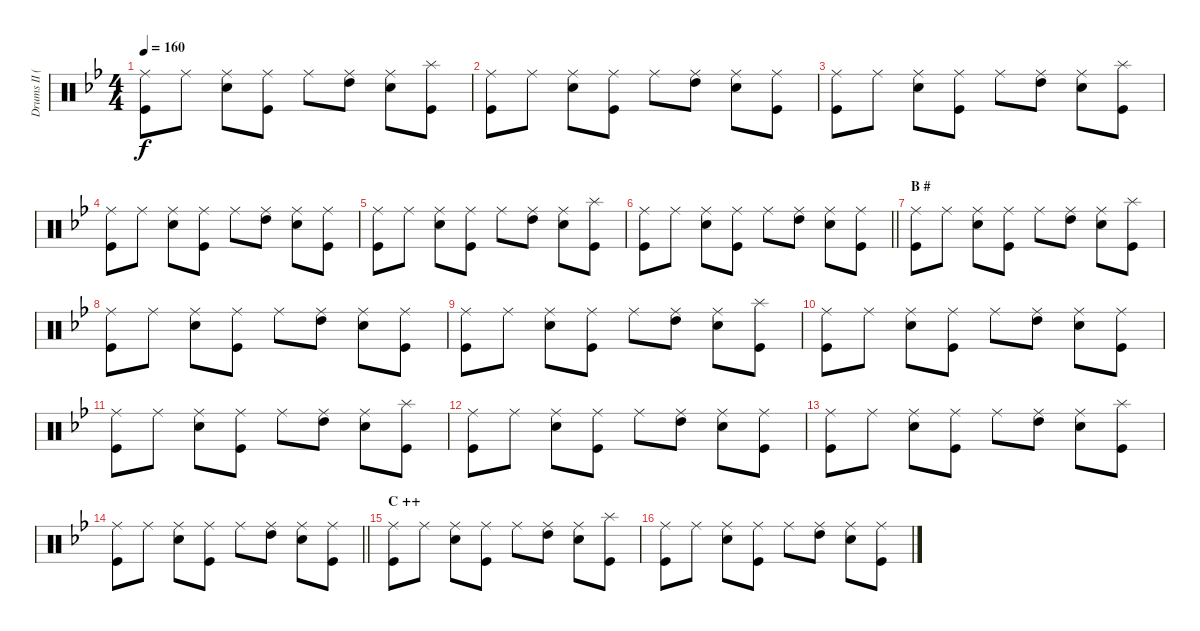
\track ("Drums II (Tainaka Ritsu)" "Drums II (") {instrument percussion}
\staff {score}
\articulation defaults
\ts (4 4)
\tempo 160
\clef neutral
\ks bb
("Ride (middle)" "Kick (hit)").8{dy f} "Ride (middle)".8 ("Ride (middle)" "Snare (hit) 2").8 ("Ride (middle)" "Kick (hit)").8 "Ride (middle)".8 ("Ride (middle)" "High Tom (hit)").8 ("Ride (middle)" "Snare (hit) 2").8 ("Splash (hit)" "Kick (hit)").8 |
("Ride (middle)" "Kick (hit)").8 "Ride (middle)".8 ("Ride (middle)" "Snare (hit) 2").8 ("Ride (middle)" "Kick (hit)").8 "Ride (middle)".8 ("Ride (middle)" "High Tom (hit)").8 ("Ride (middle)" "Snare (hit) 2").8 ("Ride (middle)" "Kick (hit)").8 |
("Ride (middle)" "Kick (hit)").8 "Ride (middle)".8 ("Ride (middle)" "Snare (hit) 2").8 ("Ride (middle)" "Kick (hit)").8 "Ride (middle)".8 ("Ride (middle)" "High Tom (hit)").8 ("Ride (middle)" "Snare (hit) 2").8 ("Splash (hit)" "Kick (hit)").8 |
("Ride (middle)" "Kick (hit)").8 "Ride (middle)".8 ("Ride (middle)" "Snare (hit) 2").8 ("Ride (middle)" "Kick (hit)").8 "Ride (middle)".8 ("Ride (middle)" "High Tom (hit)").8 ("Ride (middle)" "Snare (hit) 2").8 ("Ride (middle)" "Kick (hit)").8 |
("Ride (middle)" "Kick (hit)").8 "Ride (middle)".8 ("Ride (middle)" "Snare (hit) 2").8 ("Ride (middle)" "Kick (hit)").8 "Ride (middle)".8 ("Ride (middle)" "High Tom (hit)").8 ("Ride (middle)" "Snare (hit) 2").8 ("Splash (hit)" "Kick (hit)").8 |
\barLineRight lightlight
("Ride (middle)" "Kick (hit)").8 "Ride (middle)".8 ("Ride (middle)" "Snare (hit) 2").8 ("Ride (middle)" "Kick (hit)").8 "Ride (middle)".8 ("Ride (middle)" "High Tom (hit)").8 ("Ride (middle)" "Snare (hit) 2").8 ("Ride (middle)" "Kick (hit)").8 |
\section ("" "B #")
("Ride (middle)" "Kick (hit)").8 "Ride (middle)".8 ("Ride (middle)" "Snare (hit) 2").8 ("Ride (middle)" "Kick (hit)").8 "Ride (middle)".8 ("Ride (middle)" "High Tom (hit)").8 ("Ride (middle)" "Snare (hit) 2").8 ("Splash (hit)" "Kick (hit)").8 |
("Ride (middle)" "Kick (hit)").8 "Ride (middle)".8 ("Ride (middle)" "Snare (hit) 2").8 ("Ride (middle)" "Kick (hit)").8 "Ride (middle)".8 ("Ride (middle)" "High Tom (hit)").8 ("Ride (middle)" "Snare (hit) 2").8 ("Ride (middle)" "Kick (hit)").8 |
("Ride (middle)" "Kick (hit)").8 "Ride (middle)".8 ("Ride (middle)" "Snare (hit) 2").8 ("Ride (middle)" "Kick (hit)").8 "Ride (middle)".8 ("Ride (middle)" "High Tom (hit)").8 ("Ride (middle)" "Snare (hit) 2").8 ("Splash (hit)" "Kick (hit)").8 |
("Ride (middle)" "Kick (hit)").8 "Ride (middle)".8 ("Ride (middle)" "Snare (hit) 2").8 ("Ride (middle)" "Kick (hit)").8 "Ride (middle)".8 ("Ride (middle)" "High Tom (hit)").8 ("Ride (middle)" "Snare (hit) 2").8 ("Ride (middle)" "Kick (hit)").8 |
("Ride (middle)" "Kick (hit)").8 "Ride (middle)".8 ("Ride (middle)" "Snare (hit) 2").8 ("Ride (middle)" "Kick (hit)").8 "Ride (middle)".8 ("Ride (middle)" "High Tom (hit)").8 ("Ride (middle)" "Snare (hit) 2").8 ("Splash (hit)" "Kick (hit)").8 |
("Ride (middle)" "Kick (hit)").8 "Ride (middle)".8 ("Ride (middle)" "Snare (hit) 2").8 ("Ride (middle)" "Kick (hit)").8 "Ride (middle)".8 ("Ride (middle)" "High Tom (hit)").8 ("Ride (middle)" "Snare (hit) 2").8 ("Ride (middle)" "Kick (hit)").8 |
("Ride (middle)" "Kick (hit)").8 "Ride (middle)".8 ("Ride (middle)" "Snare (hit) 2").8 ("Ride (middle)" "Kick (hit)").8 "Ride (middle)".8 ("Ride (middle)" "High Tom (hit)").8 ("Ride (middle)" "Snare (hit) 2").8 ("Splash (hit)" "Kick (hit)").8 |
\barLineRight lightlight
("Ride (middle)" "Kick (hit)").8 "Ride (middle)".8 ("Ride (middle)" "Snare (hit) 2").8 ("Ride (middle)" "Kick (hit)").8 "Ride (middle)".8 ("Ride (middle)" "High Tom (hit)").8 ("Ride (middle)" "Snare (hit) 2").8 ("Ride (middle)" "Kick (hit)").8 |
\section ("" "C ++")
("Ride (middle)" "Kick (hit)").8 "Ride (middle)".8 ("Ride (middle)" "Snare (hit) 2").8 ("Ride (middle)" "Kick (hit)").8 "Ride (middle)".8 ("Ride (middle)" "High Tom (hit)").8 ("Ride (middle)" "Snare (hit) 2").8 ("Splash (hit)" "Kick (hit)").8 |
("Ride (middle)" "Kick (hit)").8 "Ride (middle)".8 ("Ride (middle)" "Snare (hit) 2").8 ("Ride (middle)" "Kick (hit)").8 "Ride (middle)".8 ("Ride (middle)" "High Tom (hit)").8 ("Ride (middle)" "Snare (hit) 2").8 ("Ride (middle)" "Kick (hit)").8
